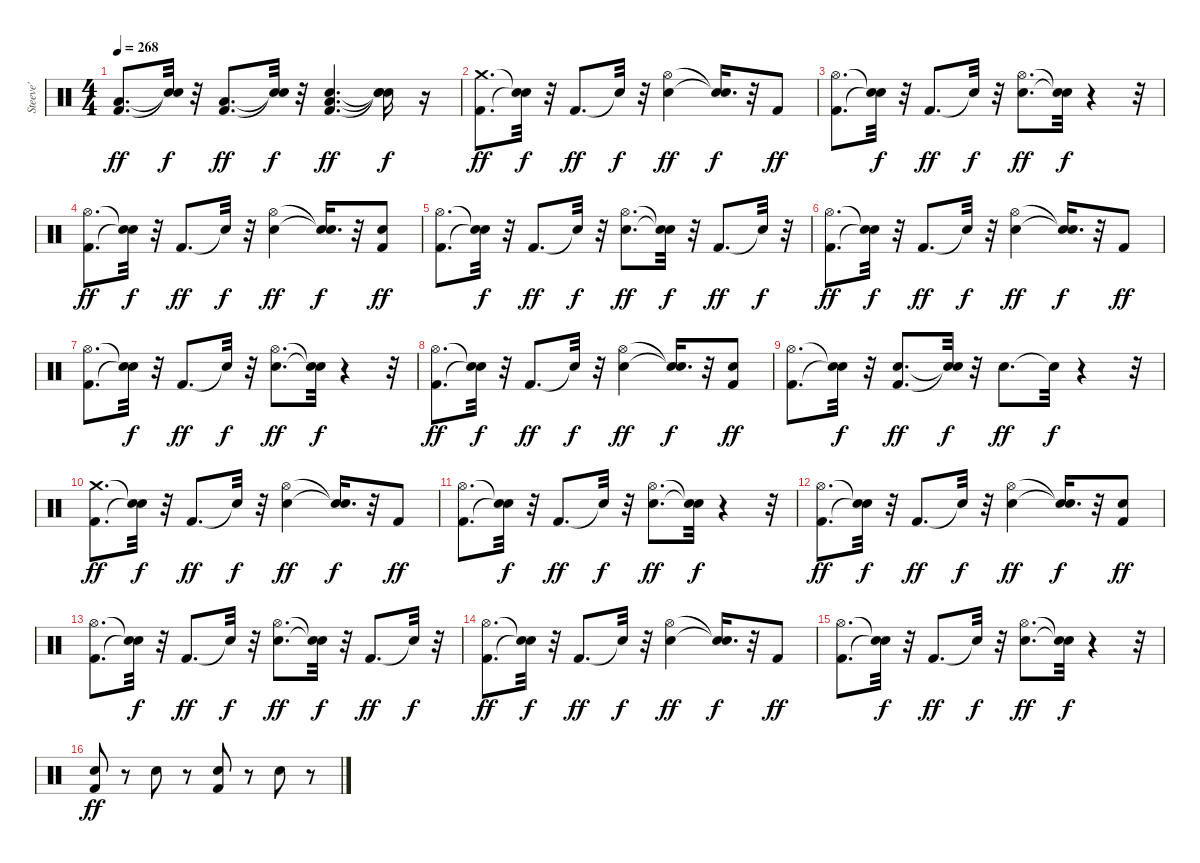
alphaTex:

\track ("Steeve'" "Steeve'") {instrument percussion}
\staff {score}
\articulation defaults
\ts (4 4)
\tempo 268
\clef neutral
\ks c
("Kick (hit) 2" "Low Floor Tom (hit)").8{d dy ff} ("Snare (hit)"{t} "Snare (hit)"{t}).32{dy f} r.32 ("Kick (hit) 2" "Low Floor Tom (hit)").8{d dy ff} ("Snare (hit)"{t} "Snare (hit)"{t}).32{dy f} r.32 ("Kick (hit) 2" "Electric Snare (hit)" "Low Floor Tom (hit)").4{d dy ff} ("Snare (hit)"{t} "Snare (hit)"{t} "Snare (hit)"{t}).16{dy f} r.16 |
("Kick (hit) 2" "Crash medium (hit)").8{d dy ff} ("Snare (hit)"{t} "Snare (hit)"{t}).32{dy f} r.32 "Kick (hit) 2".8{d dy ff} "Snare (hit)"{t}.32{dy f} r.32 ("Electric Snare (hit)" "Hi-Hat (open)").4{dy ff} ("Snare (hit)"{t} "Snare (hit)"{t}).16{d dy f} r.32 "Kick (hit) 2".8{dy ff} |
("Kick (hit) 2" "Hi-Hat (open)").8{d} ("Snare (hit)"{t} "Snare (hit)"{t}).32{dy f} r.32 "Kick (hit) 2".8{d dy ff} "Snare (hit)"{t}.32{dy f} r.32 ("Electric Snare (hit)" "Hi-Hat (open)").8{d dy ff} ("Snare (hit)"{t} "Snare (hit)"{t}).32{dy f} r.4 r.32 |
("Kick (hit) 2" "Hi-Hat (open)").8{d dy ff} ("Snare (hit)"{t} "Snare (hit)"{t}).32{dy f} r.32 "Kick (hit) 2".8{d dy ff} "Snare (hit)"{t}.32{dy f} r.32 ("Electric Snare (hit)" "Hi-Hat (open)").4{dy ff} ("Snare (hit)"{t} "Snare (hit)"{t}).16{d dy f} r.32 ("Kick (hit) 2" "Electric Snare (hit)").8{dy ff} |
("Kick (hit) 2" "Hi-Hat (open)").8{d} ("Snare (hit)"{t} "Snare (hit)"{t}).32{dy f} r.32 "Kick (hit) 2".8{d dy ff} "Snare (hit)"{t}.32{dy f} r.32 ("Electric Snare (hit)" "Hi-Hat (open)").8{d dy ff} ("Snare (hit)"{t} "Snare (hit)"{t}).32{dy f} r.32 "Kick (hit) 2".8{d dy ff} "Snare (hit)"{t}.32{dy f} r.32 |
("Kick (hit) 2" "Hi-Hat (open)").8{d dy ff} ("Snare (hit)"{t} "Snare (hit)"{t}).32{dy f} r.32 "Kick (hit) 2".8{d dy ff} "Snare (hit)"{t}.32{dy f} r.32 ("Electric Snare (hit)" "Hi-Hat (open)").4{dy ff} ("Snare (hit)"{t} "Snare (hit)"{t}).16{d dy f} r.32 "Kick (hit) 2".8{dy ff} |
("Kick (hit) 2" "Hi-Hat (open)").8{d} ("Snare (hit)"{t} "Snare (hit)"{t}).32{dy f} r.32 "Kick (hit) 2".8{d dy ff} "Snare (hit)"{t}.32{dy f} r.32 ("Electric Snare (hit)" "Hi-Hat (open)").8{d dy ff} ("Snare (hit)"{t} "Snare (hit)"{t}).32{dy f} r.4 r.32 |
("Kick (hit) 2" "Hi-Hat (open)").8{d dy ff} ("Snare (hit)"{t} "Snare (hit)"{t}).32{dy f} r.32 "Kick (hit) 2".8{d dy ff} "Snare (hit)"{t}.32{dy f} r.32 ("Electric Snare (hit)" "Hi-Hat (open)").4{dy ff} ("Snare (hit)"{t} "Snare (hit)"{t}).16{d dy f} r.32 ("Kick (hit) 2" "Electric Snare (hit)").8{dy ff} |
("Kick (hit) 2" "Hi-Hat (open)").8{d} ("Snare (hit)"{t} "Snare (hit)"{t}).32{dy f} r.32 ("Kick (hit) 2" "Electric Snare (hit)").8{d dy ff} ("Snare (hit)"{t} "Snare (hit)"{t}).32{dy f} r.32 "Electric Snare (hit)".8{d dy ff} "Snare (hit)"{t}.32{dy f} r.4 r.32 |
("Kick (hit) 2" "Crash medium (hit)").8{d dy ff} ("Snare (hit)"{t} "Snare (hit)"{t}).32{dy f} r.32 "Kick (hit) 2".8{d dy ff} "Snare (hit)"{t}.32{dy f} r.32 ("Electric Snare (hit)" "Hi-Hat (open)").4{dy ff} ("Snare (hit)"{t} "Snare (hit)"{t}).16{d dy f} r.32 "Kick (hit) 2".8{dy ff} |
("Kick (hit) 2" "Hi-Hat (open)").8{d} ("Snare (hit)"{t} "Snare (hit)"{t}).32{dy f} r.32 "Kick (hit) 2".8{d dy ff} "Snare (hit)"{t}.32{dy f} r.32 ("Electric Snare (hit)" "Hi-Hat (open)").8{d dy ff} ("Snare (hit)"{t} "Snare (hit)"{t}).32{dy f} r.4 r.32 |
("Kick (hit) 2" "Hi-Hat (open)").8{d dy ff} ("Snare (hit)"{t} "Snare (hit)"{t}).32{dy f} r.32 "Kick (hit) 2".8{d dy ff} "Snare (hit)"{t}.32{dy f} r.32 ("Electric Snare (hit)" "Hi-Hat (open)").4{dy ff} ("Snare (hit)"{t} "Snare (hit)"{t}).16{d dy f} r.32 ("Kick (hit) 2" "Electric Snare (hit)").8{dy ff} |
("Kick (hit) 2" "Hi-Hat (open)").8{d} ("Snare (hit)"{t} "Snare (hit)"{t}).32{dy f} r.32 "Kick (hit) 2".8{d dy ff} "Snare (hit)"{t}.32{dy f} r.32 ("Electric Snare (hit)" "Hi-Hat (open)").8{d dy ff} ("Snare (hit)"{t} "Snare (hit)"{t}).32{dy f} r.32 "Kick (hit) 2".8{d dy ff} "Snare (hit)"{t}.32{dy f} r.32 |
("Kick (hit) 2" "Hi-Hat (open)").8{d dy ff} ("Snare (hit)"{t} "Snare (hit)"{t}).32{dy f} r.32 "Kick (hit) 2".8{d dy ff} "Snare (hit)"{t}.32{dy f} r.32 ("Electric Snare (hit)" "Hi-Hat (open)").4{dy ff} ("Snare (hit)"{t} "Snare (hit)"{t}).16{d dy f} r.32 "Kick (hit) 2".8{dy ff} |
("Kick (hit) 2" "Hi-Hat (open)").8{d} ("Snare (hit)"{t} "Snare (hit)"{t}).32{dy f} r.32 "Kick (hit) 2".8{d dy ff} "Snare (hit)"{t}.32{dy f} r.32 ("Electric Snare (hit)" "Hi-Hat (open)").8{d dy ff} ("Snare (hit)"{t} "Snare (hit)"{t}).32{dy f} r.4 r.32 |
("Kick (hit) 2" "Electric Snare (hit)").8{dy ff volume 5} r.8 "Electric Snare (hit)".8{volume 7} r.8 ("Kick (hit) 2" "Electric Snare (hit)").8{volume 9} r.8 "Electric Snare (hit)".8{volume 10} r.8
